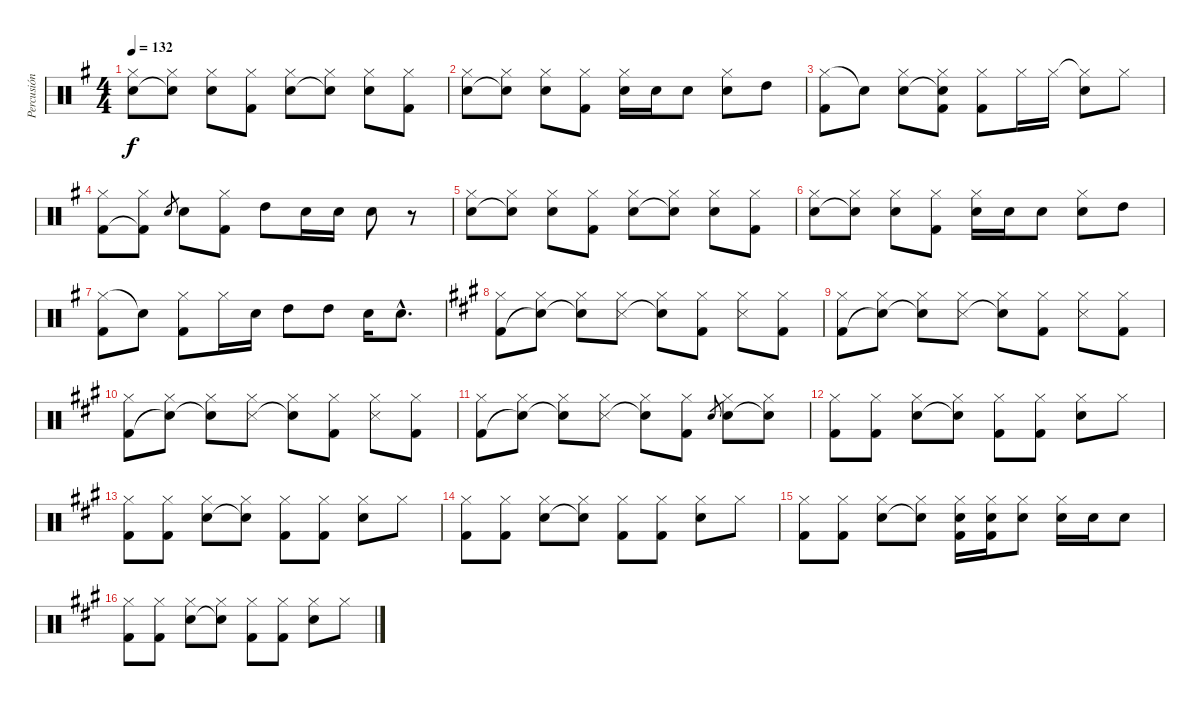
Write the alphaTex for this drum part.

\track ("Percusión" "Percusión") {instrument percussion}
\staff {score}
\articulation defaults
\ts (4 4)
\tempo 132
\clef neutral
\ks eminor
("Hi-Hat (closed)" "Electric Snare (hit)").8{dy f} ("Hi-Hat (closed)" "Snare (hit)"{t}).8 ("Hi-Hat (closed)" "Electric Snare (hit)").8 ("Hi-Hat (closed)" "Kick (hit) 2").8 ("Hi-Hat (closed)" "Electric Snare (hit)").8 ("Hi-Hat (closed)" "Snare (hit)"{t}).8 ("Hi-Hat (closed)" "Electric Snare (hit)").8 ("Hi-Hat (closed)" "Kick (hit) 2").8 |
("Hi-Hat (closed)" "Electric Snare (hit)").8 ("Hi-Hat (closed)" "Snare (hit)"{t}).8 ("Hi-Hat (closed)" "Electric Snare (hit)").8 ("Hi-Hat (closed)" "Kick (hit) 2").8 ("Hi-Hat (closed)" "Electric Snare (hit)").16 "Electric Snare (hit)".16 "Electric Snare (hit)".8 ("Hi-Hat (closed)" "Electric Snare (hit)").8 "High Tom (hit)".8 |
("Hi-Hat (closed)" "Kick (hit) 2").8 "Snare (hit)"{t}.8 ("Hi-Hat (closed)" "Electric Snare (hit)").8 ("Hi-Hat (closed)" "Snare (hit)"{t} "Kick (hit) 2").8 ("Hi-Hat (closed)" "Kick (hit) 2").8 "Hi-Hat (closed)".16 "Hi-Hat (closed)".16 ("Hi-Hat (closed)"{t} "Electric Snare (hit)").8 "Hi-Hat (closed)".8 |
("Hi-Hat (closed)" "Kick (hit) 2").8 ("Hi-Hat (closed)" "Kick (hit) 2"{t}).8 "Electric Snare (hit)".8{gr} "Electric Snare (hit)".8 ("Hi-Hat (closed)" "Kick (hit) 2").8 "High Tom (hit)".8 "Electric Snare (hit)".16 "Electric Snare (hit)".16 "Electric Snare (hit)".8 r.8 |
("Hi-Hat (closed)" "Electric Snare (hit)").8 ("Hi-Hat (closed)" "Snare (hit)"{t}).8 ("Hi-Hat (closed)" "Electric Snare (hit)").8 ("Hi-Hat (closed)" "Kick (hit) 2").8 ("Hi-Hat (closed)" "Electric Snare (hit)").8 ("Hi-Hat (closed)" "Snare (hit)"{t}).8 ("Hi-Hat (closed)" "Electric Snare (hit)").8 ("Hi-Hat (closed)" "Kick (hit) 2").8 |
("Hi-Hat (closed)" "Electric Snare (hit)").8 ("Hi-Hat (closed)" "Snare (hit)"{t}).8 ("Hi-Hat (closed)" "Electric Snare (hit)").8 ("Hi-Hat (closed)" "Kick (hit) 2").8 ("Hi-Hat (closed)" "Electric Snare (hit)").16 "Electric Snare (hit)".16 "Electric Snare (hit)".8 ("Hi-Hat (closed)" "Electric Snare (hit)").8 "High Tom (hit)".8 |
("Hi-Hat (closed)" "Kick (hit) 2").8 "Snare (hit)"{t}.8 ("Hi-Hat (closed)" "Kick (hit) 2").8 "Hi-Hat (closed)".16 "Electric Snare (hit)".16 "High Tom (hit)".8 "High Tom (hit)".8 "Electric Snare (hit)".16 "Electric Snare (hit)"{hac}.8{d} |
\ks f#minor
("Hi-Hat (closed)" "Kick (hit) 2").8 ("Hi-Hat (closed)" "Snare (hit)"{t}).8 ("Hi-Hat (closed)" "Snare (hit)"{t}).8 ("Hi-Hat (closed)" "Snare (side stick) 3").8 ("Hi-Hat (closed)" "Snare (hit)"{t}).8 ("Hi-Hat (closed)" "Kick (hit) 2").8 ("Hi-Hat (closed)" "Snare (side stick) 3").8 ("Hi-Hat (closed)" "Kick (hit) 2").8 |
("Hi-Hat (closed)" "Kick (hit) 2").8 ("Hi-Hat (closed)" "Snare (hit)"{t}).8 ("Hi-Hat (closed)" "Snare (hit)"{t}).8 ("Hi-Hat (closed)" "Snare (side stick) 3").8 ("Hi-Hat (closed)" "Snare (hit)"{t}).8 ("Hi-Hat (closed)" "Kick (hit) 2").8 ("Hi-Hat (closed)" "Snare (side stick) 3").8 ("Hi-Hat (closed)" "Kick (hit) 2").8 |
("Hi-Hat (closed)" "Kick (hit) 2").8 ("Hi-Hat (closed)" "Snare (hit)"{t}).8 ("Hi-Hat (closed)" "Snare (hit)"{t}).8 ("Hi-Hat (closed)" "Snare (side stick) 3").8 ("Hi-Hat (closed)" "Snare (hit)"{t}).8 ("Hi-Hat (closed)" "Kick (hit) 2").8 ("Hi-Hat (closed)" "Snare (side stick) 3").8 ("Hi-Hat (closed)" "Kick (hit) 2").8 |
("Hi-Hat (closed)" "Kick (hit) 2").8 ("Hi-Hat (closed)" "Snare (hit)"{t}).8 ("Hi-Hat (closed)" "Snare (hit)"{t}).8 ("Hi-Hat (closed)" "Snare (side stick) 3").8 ("Hi-Hat (closed)" "Snare (hit)"{t}).8 ("Hi-Hat (closed)" "Kick (hit) 2").8 "Snare (hit) 2".8{gr} ("Hi-Hat (closed)" "Snare (hit) 2").8 ("Hi-Hat (closed)" "Snare (hit)"{t}).8 |
("Hi-Hat (closed)" "Kick (hit) 2").8 ("Hi-Hat (closed)" "Kick (hit) 2").8 ("Hi-Hat (closed)" "Electric Snare (hit)").8 ("Hi-Hat (closed)" "Snare (hit)"{t}).8 ("Hi-Hat (closed)" "Kick (hit) 2").8 ("Hi-Hat (closed)" "Kick (hit) 2").8 ("Hi-Hat (closed)" "Electric Snare (hit)").8 "Hi-Hat (closed)".8 |
("Hi-Hat (closed)" "Kick (hit) 2").8 ("Hi-Hat (closed)" "Kick (hit) 2").8 ("Hi-Hat (closed)" "Electric Snare (hit)").8 ("Hi-Hat (closed)" "Snare (hit)"{t}).8 ("Hi-Hat (closed)" "Kick (hit) 2").8 ("Hi-Hat (closed)" "Kick (hit) 2").8 ("Hi-Hat (closed)" "Electric Snare (hit)").8 "Hi-Hat (closed)".8 |
("Hi-Hat (closed)" "Kick (hit) 2").8 ("Hi-Hat (closed)" "Kick (hit) 2").8 ("Hi-Hat (closed)" "Electric Snare (hit)").8 ("Hi-Hat (closed)" "Snare (hit)"{t}).8 ("Hi-Hat (closed)" "Kick (hit) 2").8 ("Hi-Hat (closed)" "Kick (hit) 2").8 ("Hi-Hat (closed)" "Electric Snare (hit)").8 "Hi-Hat (closed)".8 |
("Hi-Hat (closed)" "Kick (hit) 2").8 ("Hi-Hat (closed)" "Kick (hit) 2").8 ("Hi-Hat (closed)" "Electric Snare (hit)").8 ("Hi-Hat (closed)" "Snare (hit)"{t}).8 ("Hi-Hat (closed)" "Electric Snare (hit)" "Kick (hit) 2").16 ("Hi-Hat (closed)" "Electric Snare (hit)" "Kick (hit) 2").16 ("Hi-Hat (closed)" "Electric Snare (hit)").8 ("Hi-Hat (closed)" "Electric Snare (hit)").16 "Electric Snare (hit)".16 "Electric Snare (hit)".8 |
("Hi-Hat (closed)" "Kick (hit) 2").8 ("Hi-Hat (closed)" "Kick (hit) 2").8 ("Hi-Hat (closed)" "Electric Snare (hit)").8 ("Hi-Hat (closed)" "Snare (hit)"{t}).8 ("Hi-Hat (closed)" "Kick (hit) 2").8 ("Hi-Hat (closed)" "Kick (hit) 2").8 ("Hi-Hat (closed)" "Electric Snare (hit)").8 "Hi-Hat (closed)".8
